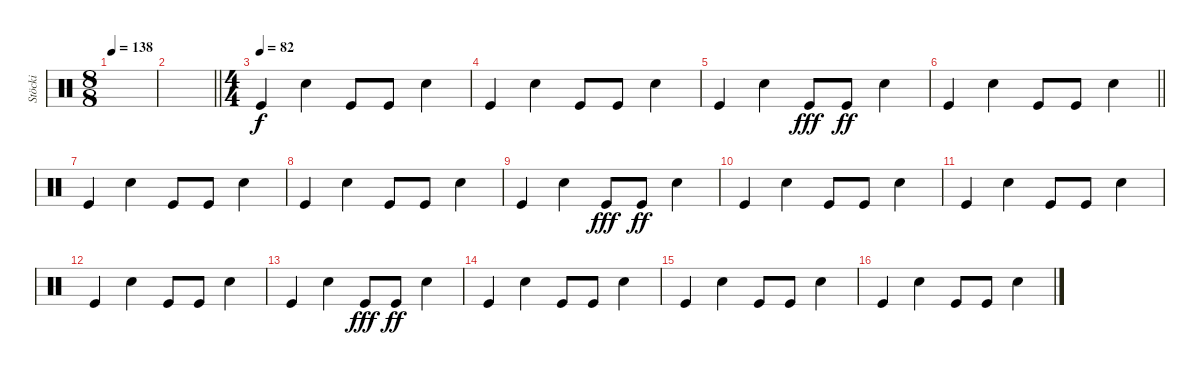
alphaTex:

\track ("Stöcki" "Stöcki") {instrument percussion}
\staff {score}
\articulation defaults
\ts (8 8)
\tempo 138
\clef neutral
\ks c
|
\barLineRight lightlight
|
\ts (4 4)
\tempo (82)
"Kick (hit)".4 "Snare (hit) 2".4 "Kick (hit)".8 "Kick (hit)".8 "Snare (hit) 2".4 |
"Kick (hit)".4 "Snare (hit) 2".4 "Kick (hit)".8 "Kick (hit)".8 "Snare (hit) 2".4 |
"Kick (hit)".4 "Snare (hit) 2".4 "Kick (hit)".8{dy fff} "Kick (hit)".8{dy ff} "Snare (hit) 2".4 |
\barLineRight lightlight "Kick (hit)".4 "Snare (hit) 2".4 "Kick (hit)".8 "Kick (hit)".8 "Snare (hit) 2".4
|
"Kick (hit)".4 "Snare (hit) 2".4 "Kick (hit)".8 "Kick (hit)".8 "Snare (hit) 2".4 |
"Kick (hit)".4 "Snare (hit) 2".4 "Kick (hit)".8 "Kick (hit)".8 "Snare (hit) 2".4 |
"Kick (hit)".4 "Snare (hit) 2".4 "Kick (hit)".8{dy fff} "Kick (hit)".8{dy ff} "Snare (hit) 2".4 |
"Kick (hit)".4 "Snare (hit) 2".4 "Kick (hit)".8 "Kick (hit)".8 "Snare (hit) 2".4 |
"Kick (hit)".4 "Snare (hit) 2".4 "Kick (hit)".8 "Kick (hit)".8 "Snare (hit) 2".4 |
"Kick (hit)".4 "Snare (hit) 2".4 "Kick (hit)".8 "Kick (hit)".8 "Snare (hit) 2".4 |
"Kick (hit)".4 "Snare (hit) 2".4 "Kick (hit)".8{dy fff} "Kick (hit)".8{dy ff} "Snare (hit) 2".4 |
"Kick (hit)".4 "Snare (hit) 2".4 "Kick (hit)".8 "Kick (hit)".8 "Snare (hit) 2".4 |
"Kick (hit)".4 "Snare (hit) 2".4 "Kick (hit)".8 "Kick (hit)".8 "Snare (hit) 2".4 |
"Kick (hit)".4 "Snare (hit) 2".4 "Kick (hit)".8 "Kick (hit)".8 "Snare (hit) 2".4
